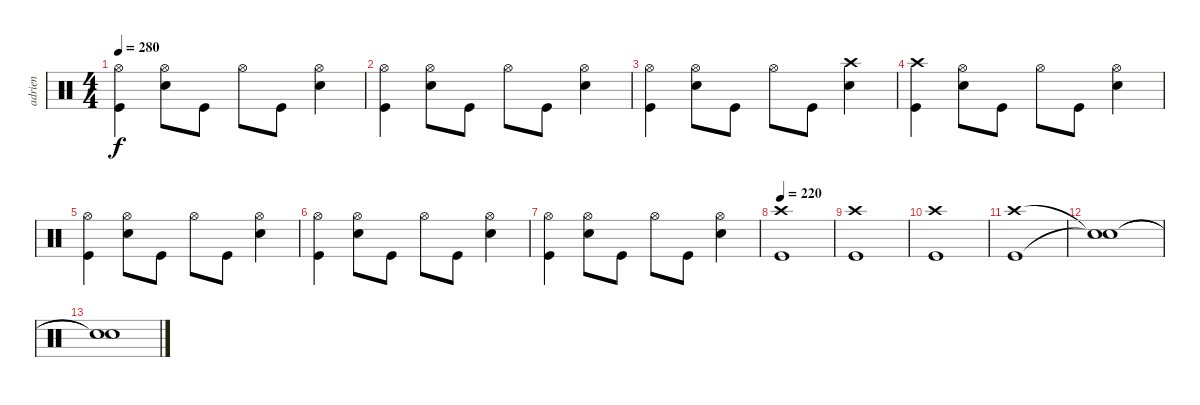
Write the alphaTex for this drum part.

\track ("adrien" "adrien") {instrument percussion}
\staff {score}
\articulation defaults
\ts (4 4)
\tempo 280
\clef neutral
\ks c
("Hi-Hat (open)" "Kick (hit)").4{dy f} ("Hi-Hat (open)" "Snare (hit) 2").8 "Kick (hit)".8 "Hi-Hat (open)".8 "Kick (hit)".8 ("Hi-Hat (open)" "Snare (hit) 2").4 |
("Hi-Hat (open)" "Kick (hit)").4 ("Hi-Hat (open)" "Snare (hit) 2").8 "Kick (hit)".8 "Hi-Hat (open)".8 "Kick (hit)".8 ("Hi-Hat (open)" "Snare (hit) 2").4 |
("Hi-Hat (open)" "Kick (hit)").4 ("Hi-Hat (open)" "Snare (hit) 2").8 "Kick (hit)".8 "Hi-Hat (open)".8 "Kick (hit)".8 ("Crash high (hit)" "Snare (hit) 2").4 |
("Crash high (hit)" "Kick (hit)").4 ("Hi-Hat (open)" "Snare (hit) 2").8 "Kick (hit)".8 "Hi-Hat (open)".8 "Kick (hit)".8 ("Hi-Hat (open)" "Snare (hit) 2").4 |
("Hi-Hat (open)" "Kick (hit)").4 ("Hi-Hat (open)" "Snare (hit) 2").8 "Kick (hit)".8 "Hi-Hat (open)".8 "Kick (hit)".8 ("Hi-Hat (open)" "Snare (hit) 2").4 |
("Hi-Hat (open)" "Kick (hit)").4 ("Hi-Hat (open)" "Snare (hit) 2").8 "Kick (hit)".8 "Hi-Hat (open)".8 "Kick (hit)".8 ("Hi-Hat (open)" "Snare (hit) 2").4 |
("Hi-Hat (open)" "Kick (hit)").4 ("Hi-Hat (open)" "Snare (hit) 2").8 "Kick (hit)".8 "Hi-Hat (open)".8 "Kick (hit)".8 ("Hi-Hat (open)" "Snare (hit) 2").4 |
\tempo 220
("Crash high (hit)" "Kick (hit)").1 |
("Crash high (hit)" "Kick (hit)").1 |
("Crash high (hit)" "Kick (hit)").1 |
("Crash high (hit)" "Kick (hit)").1 |
("Snare (hit)"{t} "Snare (hit)"{t}).1 |
("Snare (hit)"{t} "Snare (hit)"{t}).1
